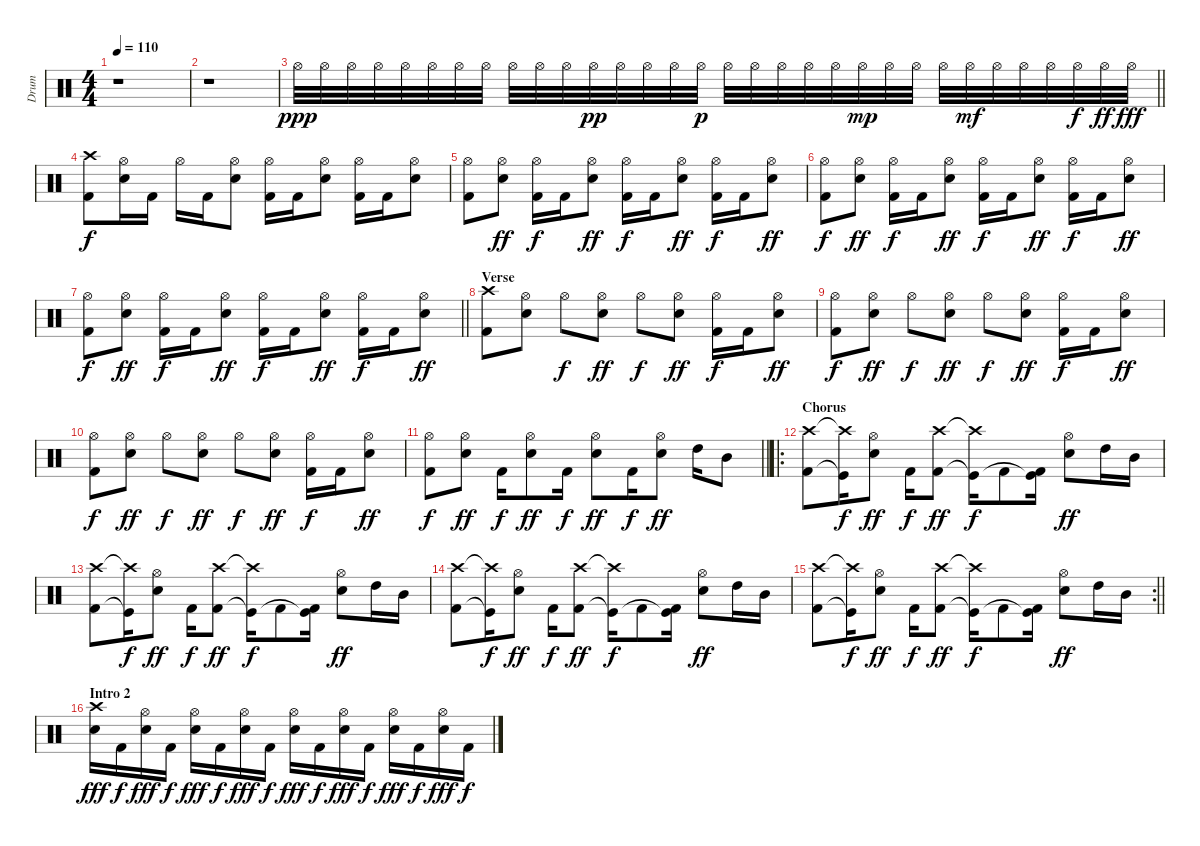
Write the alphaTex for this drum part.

\track ("Drum" "Drum") {instrument percussion}
\staff {score}
\articulation defaults
\ts (4 4)
\tempo 110
\clef neutral
\ks c
r.1{dy ff} |
r.1 |
\barLineRight lightlight "Hi-Hat (open)".32{dy ppp} "Hi-Hat (open)".32 "Hi-Hat (open)".32 "Hi-Hat (open)".32 "Hi-Hat (open)".32 "Hi-Hat (open)".32 "Hi-Hat (open)".32 "Hi-Hat (open)".32 "Hi-Hat (open)".32 "Hi-Hat (open)".32 "Hi-Hat (open)".32 "Hi-Hat (open)".32{dy pp} "Hi-Hat (open)".32 "Hi-Hat (open)".32 "Hi-Hat (open)".32 "Hi-Hat (open)".32{dy p} "Hi-Hat (open)".32 "Hi-Hat (open)".32 "Hi-Hat (open)".32 "Hi-Hat (open)".32 "Hi-Hat (open)".32 "Hi-Hat (open)".32{dy mp} "Hi-Hat (open)".32 "Hi-Hat (open)".32 "Hi-Hat (open)".32 "Hi-Hat (open)".32{dy mf} "Hi-Hat (open)".32 "Hi-Hat (open)".32 "Hi-Hat (open)".32 "Hi-Hat (open)".32{dy f} "Hi-Hat (open)".32{dy ff} "Hi-Hat (open)".32{dy fff}
|
("Crash high (hit)" "Kick (hit) 2").8{dy f} ("Hi-Hat (open)" "Snare (hit) 2").16 "Kick (hit) 2".16 "Hi-Hat (open)".16 "Kick (hit) 2".16 ("Hi-Hat (open)" "Snare (hit) 2").8 ("Hi-Hat (open)" "Kick (hit) 2").16 "Kick (hit) 2".16 ("Hi-Hat (open)" "Snare (hit) 2").8 ("Hi-Hat (open)" "Kick (hit) 2").16 "Kick (hit) 2".16 ("Hi-Hat (open)" "Snare (hit) 2").8 |
("Kick (hit) 2" "Hi-Hat (open)").8 ("Snare (hit) 2" "Hi-Hat (open)").8{dy ff} ("Kick (hit) 2" "Hi-Hat (open)").16{dy f} "Kick (hit) 2".16 ("Snare (hit) 2" "Hi-Hat (open)").8{dy ff} ("Kick (hit) 2" "Hi-Hat (open)").16{dy f} "Kick (hit) 2".16 ("Snare (hit) 2" "Hi-Hat (open)").8{dy ff} ("Kick (hit) 2" "Hi-Hat (open)").16{dy f} "Kick (hit) 2".16 ("Snare (hit) 2" "Hi-Hat (open)").8{dy ff} |
("Kick (hit) 2" "Hi-Hat (open)").8{dy f} ("Snare (hit) 2" "Hi-Hat (open)").8{dy ff} ("Kick (hit) 2" "Hi-Hat (open)").16{dy f} "Kick (hit) 2".16 ("Snare (hit) 2" "Hi-Hat (open)").8{dy ff} ("Kick (hit) 2" "Hi-Hat (open)").16{dy f} "Kick (hit) 2".16 ("Snare (hit) 2" "Hi-Hat (open)").8{dy ff} ("Kick (hit) 2" "Hi-Hat (open)").16{dy f} "Kick (hit) 2".16 ("Snare (hit) 2" "Hi-Hat (open)").8{dy ff} |
\barLineRight lightlight
("Kick (hit) 2" "Hi-Hat (open)").8{dy f} ("Snare (hit) 2" "Hi-Hat (open)").8{dy ff} ("Kick (hit) 2" "Hi-Hat (open)").16{dy f} "Kick (hit) 2".16 ("Snare (hit) 2" "Hi-Hat (open)").8{dy ff} ("Kick (hit) 2" "Hi-Hat (open)").16{dy f} "Kick (hit) 2".16 ("Snare (hit) 2" "Hi-Hat (open)").8{dy ff} ("Kick (hit) 2" "Hi-Hat (open)").16{dy f} "Kick (hit) 2".16 ("Snare (hit) 2" "Hi-Hat (open)").8{dy ff} |
\section ("" "Verse")
("Kick (hit) 2" "Crash high (hit)").8 ("Snare (hit) 2" "Hi-Hat (open)").8 "Hi-Hat (open)".8{dy f} ("Snare (hit) 2" "Hi-Hat (open)").8{dy ff} "Hi-Hat (open)".8{dy f} ("Snare (hit) 2" "Hi-Hat (open)").8{dy ff} ("Hi-Hat (open)" "Kick (hit) 2").16{dy f} "Kick (hit) 2".16 ("Snare (hit) 2" "Hi-Hat (open)").8{dy ff} |
("Kick (hit) 2" "Hi-Hat (open)").8{dy f} ("Snare (hit) 2" "Hi-Hat (open)").8{dy ff} "Hi-Hat (open)".8{dy f} ("Snare (hit) 2" "Hi-Hat (open)").8{dy ff} "Hi-Hat (open)".8{dy f} ("Snare (hit) 2" "Hi-Hat (open)").8{dy ff} ("Hi-Hat (open)" "Kick (hit) 2").16{dy f} "Kick (hit) 2".16 ("Snare (hit) 2" "Hi-Hat (open)").8{dy ff} |
("Kick (hit) 2" "Hi-Hat (open)").8{dy f} ("Snare (hit) 2" "Hi-Hat (open)").8{dy ff} "Hi-Hat (open)".8{dy f} ("Snare (hit) 2" "Hi-Hat (open)").8{dy ff} "Hi-Hat (open)".8{dy f} ("Snare (hit) 2" "Hi-Hat (open)").8{dy ff} ("Hi-Hat (open)" "Kick (hit) 2").16{dy f} "Kick (hit) 2".16 ("Snare (hit) 2" "Hi-Hat (open)").8{dy ff} |
\barLineRight lightlight
("Kick (hit) 2" "Hi-Hat (open)").8{dy f} ("Hi-Hat (open)" "Snare (hit) 2").8{dy ff} "Kick (hit) 2".16{dy f} ("Hi-Hat (open)" "Snare (hit) 2").8{dy ff} "Kick (hit) 2".16{dy f} ("Hi-Hat (open)" "Snare (hit) 2").8{dy ff} "Kick (hit) 2".16{dy f} ("Hi-Hat (open)" "Snare (hit) 2").8{dy ff} "High Tom (hit)".16 "Mid Tom (hit)".8 |
\ro
\section ("" "Chorus")
("Crash high (hit)" "Kick (hit) 2").8 ("Crash high (hit)"{t} "Kick (hit)"{t}).16{dy f} ("Snare (hit) 2" "Hi-Hat (open)").8{dy ff} "Kick (hit) 2".16{dy f} ("Crash high (hit)" "Kick (hit) 2").8{dy ff} ("Crash high (hit)"{t} "Kick (hit)"{t}).16{dy f} "Kick (hit) 2".8 ("Kick (hit) 2" "Kick (hit)"{t}).16 ("Snare (hit) 2" "Hi-Hat (open)").8{dy ff} "High Tom (hit)".16 "Mid Tom (hit)".16 |
("Crash high (hit)" "Kick (hit) 2").8 ("Crash high (hit)"{t} "Kick (hit)"{t}).16{dy f} ("Snare (hit) 2" "Hi-Hat (open)").8{dy ff} "Kick (hit) 2".16{dy f} ("Crash high (hit)" "Kick (hit) 2").8{dy ff} ("Crash high (hit)"{t} "Kick (hit)"{t}).16{dy f} "Kick (hit) 2".8 ("Kick (hit) 2" "Kick (hit)"{t}).16 ("Snare (hit) 2" "Hi-Hat (open)").8{dy ff} "High Tom (hit)".16 "Mid Tom (hit)".16 |
("Crash high (hit)" "Kick (hit) 2").8 ("Crash high (hit)"{t} "Kick (hit)"{t}).16{dy f} ("Snare (hit) 2" "Hi-Hat (open)").8{dy ff} "Kick (hit) 2".16{dy f} ("Crash high (hit)" "Kick (hit) 2").8{dy ff} ("Crash high (hit)"{t} "Kick (hit)"{t}).16{dy f} "Kick (hit) 2".8 ("Kick (hit) 2" "Kick (hit)"{t}).16 ("Snare (hit) 2" "Hi-Hat (open)").8{dy ff} "High Tom (hit)".16 "Mid Tom (hit)".16 |
\rc 2
\barLineRight lightlight
("Crash high (hit)" "Kick (hit) 2").8 ("Crash high (hit)"{t} "Kick (hit)"{t}).16{dy f} ("Snare (hit) 2" "Hi-Hat (open)").8{dy ff} "Kick (hit) 2".16{dy f} ("Crash high (hit)" "Kick (hit) 2").8{dy ff} ("Crash high (hit)"{t} "Kick (hit)"{t}).16{dy f} "Kick (hit) 2".8 ("Kick (hit) 2" "Kick (hit)"{t}).16 ("Snare (hit) 2" "Hi-Hat (open)").8{dy ff} "High Tom (hit)".16 "Mid Tom (hit)".16 |
\section ("" "Intro 2")
("Snare (hit) 2" "Crash high (hit)").16{dy fff} "Kick (hit) 2".16{dy f} ("Snare (hit) 2" "Hi-Hat (open)").16{dy fff} "Kick (hit) 2".16{dy f} ("Snare (hit) 2" "Hi-Hat (open)").16{dy fff} "Kick (hit) 2".16{dy f} ("Snare (hit) 2" "Hi-Hat (open)").16{dy fff} "Kick (hit) 2".16{dy f} ("Snare (hit) 2" "Hi-Hat (open)").16{dy fff} "Kick (hit) 2".16{dy f} ("Snare (hit) 2" "Hi-Hat (open)").16{dy fff} "Kick (hit) 2".16{dy f} ("Snare (hit) 2" "Hi-Hat (open)").16{dy fff} "Kick (hit) 2".16{dy f} ("Snare (hit) 2" "Hi-Hat (open)").16{dy fff} "Kick (hit) 2".16{dy f}
